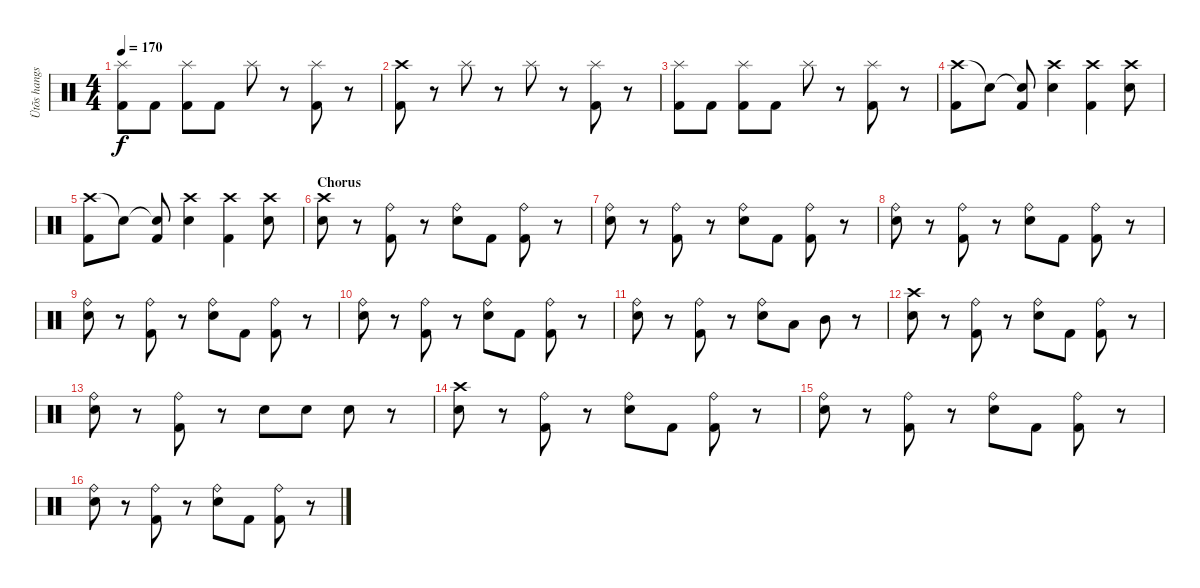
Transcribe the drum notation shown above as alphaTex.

\track ("Ütõs hangszer" "Ütõs hangs") {instrument percussion}
\staff {score}
\articulation defaults
\ts (4 4)
\tempo 170
\clef neutral
\ks c
("Splash (hit)" "Kick (hit) 2").8{dy f} "Kick (hit) 2".8 ("Splash (hit)" "Kick (hit) 2").8 "Kick (hit) 2".8 "Splash (hit)".8 r.8 ("Splash (hit)" "Kick (hit) 2").8 r.8 |
("Crash high (hit)" "Kick (hit) 2").8 r.8 "Splash (hit)".8 r.8 "Splash (hit)".8 r.8 ("Splash (hit)" "Kick (hit) 2").8 r.8 |
("Splash (hit)" "Kick (hit) 2").8 "Kick (hit) 2".8 ("Splash (hit)" "Kick (hit) 2").8 "Kick (hit) 2".8 "Splash (hit)".8 r.8 ("Splash (hit)" "Kick (hit) 2").8 r.8 |
("Crash high (hit)" "Kick (hit) 2").8 "Snare (hit)"{t}.8 ("Snare (hit)"{t} "Kick (hit) 2").8 ("Crash high (hit)" "Snare (hit) 2").4 ("Crash high (hit)" "Kick (hit) 2").4 ("Crash high (hit)" "Snare (hit) 2").8 |
("Crash high (hit)" "Kick (hit) 2").8 "Snare (hit)"{t}.8 ("Snare (hit)"{t} "Kick (hit) 2").8 ("Crash high (hit)" "Snare (hit) 2").4 ("Crash high (hit)" "Kick (hit) 2").4 ("Crash high (hit)" "Snare (hit) 2").8 |
\section ("" "Chorus")
("Crash high (hit)" "Snare (hit) 2").8 r.8 ("Ride (bell)" "Kick (hit) 2").8 r.8 ("Ride (bell)" "Snare (hit) 2").8 "Kick (hit) 2".8 ("Ride (bell)" "Kick (hit) 2").8 r.8 |
("Ride (bell)" "Snare (hit) 2").8 r.8 ("Ride (bell)" "Kick (hit) 2").8 r.8 ("Ride (bell)" "Snare (hit) 2").8 "Kick (hit) 2".8 ("Ride (bell)" "Kick (hit) 2").8 r.8 |
("Ride (bell)" "Snare (hit) 2").8 r.8 ("Ride (bell)" "Kick (hit) 2").8 r.8 ("Ride (bell)" "Snare (hit) 2").8 "Kick (hit) 2".8 ("Ride (bell)" "Kick (hit) 2").8 r.8 |
("Ride (bell)" "Snare (hit) 2").8 r.8 ("Ride (bell)" "Kick (hit) 2").8 r.8 ("Ride (bell)" "Snare (hit) 2").8 "Kick (hit) 2".8 ("Ride (bell)" "Kick (hit) 2").8 r.8 |
("Ride (bell)" "Snare (hit) 2").8 r.8 ("Ride (bell)" "Kick (hit) 2").8 r.8 ("Ride (bell)" "Snare (hit) 2").8 "Kick (hit) 2".8 ("Ride (bell)" "Kick (hit) 2").8 r.8 |
("Ride (bell)" "Snare (hit) 2").8 r.8 ("Ride (bell)" "Kick (hit) 2").8 r.8 ("Ride (bell)" "Snare (hit) 2").8 "Low Tom (hit)".8 "Mid Tom (hit)".8 r.8 |
("Crash high (hit)" "Snare (hit) 2").8 r.8 ("Ride (bell)" "Kick (hit) 2").8 r.8 ("Ride (bell)" "Snare (hit) 2").8 "Kick (hit) 2".8 ("Ride (bell)" "Kick (hit) 2").8 r.8 |
("Ride (bell)" "Snare (hit) 2").8 r.8 ("Ride (bell)" "Kick (hit) 2").8 r.8 "Snare (hit) 2".8 "Snare (hit) 2".8 "Snare (hit) 2".8 r.8 |
("Crash high (hit)" "Snare (hit) 2").8 r.8 ("Ride (bell)" "Kick (hit) 2").8 r.8 ("Ride (bell)" "Snare (hit) 2").8 "Kick (hit) 2".8 ("Ride (bell)" "Kick (hit) 2").8 r.8 |
("Ride (bell)" "Snare (hit) 2").8 r.8 ("Ride (bell)" "Kick (hit) 2").8 r.8 ("Ride (bell)" "Snare (hit) 2").8 "Kick (hit) 2".8 ("Ride (bell)" "Kick (hit) 2").8 r.8 |
("Ride (bell)" "Snare (hit) 2").8 r.8 ("Ride (bell)" "Kick (hit) 2").8 r.8 ("Ride (bell)" "Snare (hit) 2").8 "Kick (hit) 2".8 ("Ride (bell)" "Kick (hit) 2").8 r.8
